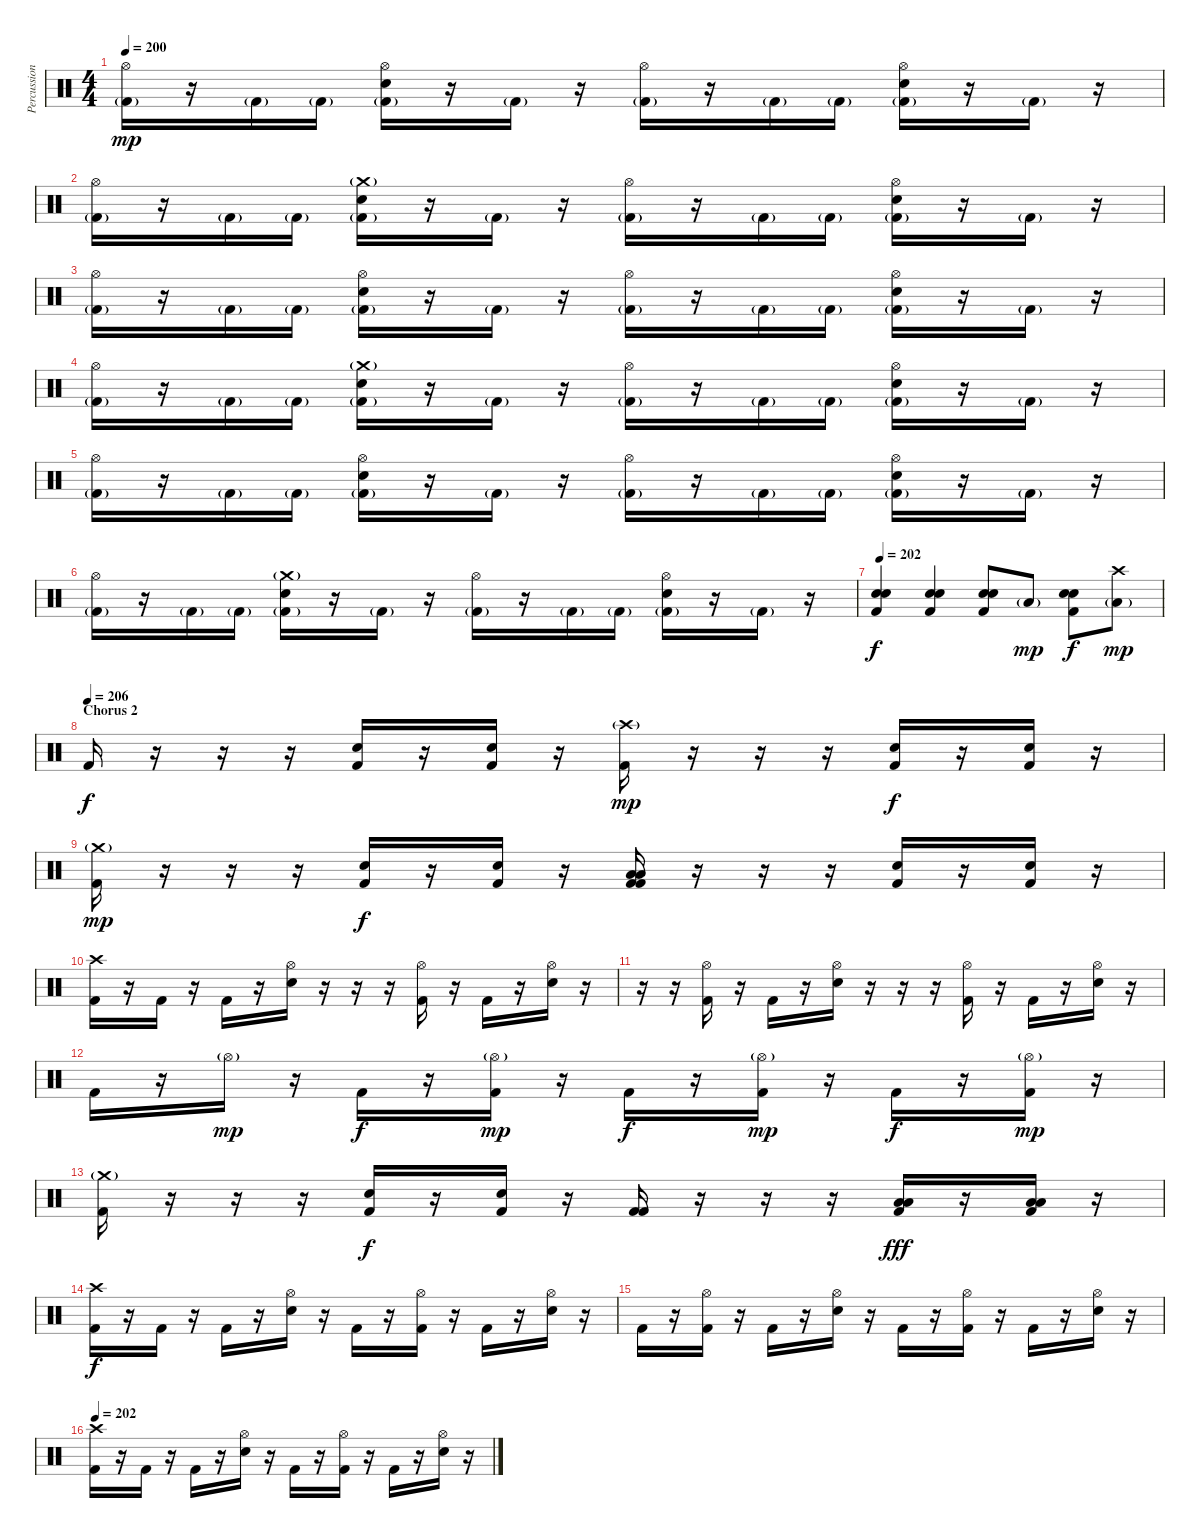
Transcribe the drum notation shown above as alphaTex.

\track ("Percussion" "Percussion") {instrument percussion}
\staff {score}
\articulation defaults
\ts (4 4)
\tempo 200
\clef neutral
\ks c
("Hi-Hat (open)" "Kick (hit) 2"{g}).16{dy mp} r.16 "Kick (hit) 2"{g}.16 "Kick (hit) 2"{g}.16 ("Hi-Hat (open)" "Electric Snare (hit)" "Kick (hit) 2"{g}).16 r.16 "Kick (hit) 2"{g}.16 r.16 ("Hi-Hat (open)" "Kick (hit) 2"{g}).16 r.16 "Kick (hit) 2"{g}.16 "Kick (hit) 2"{g}.16 ("Hi-Hat (open)" "Electric Snare (hit)" "Kick (hit) 2"{g}).16 r.16 "Kick (hit) 2"{g}.16 r.16 |
("Hi-Hat (open)" "Kick (hit) 2"{g}).16 r.16 "Kick (hit) 2"{g}.16 "Kick (hit) 2"{g}.16 ("Crash medium (hit)"{g} "Electric Snare (hit)" "Kick (hit) 2"{g}).16 r.16 "Kick (hit) 2"{g}.16 r.16 ("Hi-Hat (open)" "Kick (hit) 2"{g}).16 r.16 "Kick (hit) 2"{g}.16 "Kick (hit) 2"{g}.16 ("Hi-Hat (open)" "Electric Snare (hit)" "Kick (hit) 2"{g}).16 r.16 "Kick (hit) 2"{g}.16 r.16 |
("Hi-Hat (open)" "Kick (hit) 2"{g}).16 r.16 "Kick (hit) 2"{g}.16 "Kick (hit) 2"{g}.16 ("Hi-Hat (open)" "Electric Snare (hit)" "Kick (hit) 2"{g}).16 r.16 "Kick (hit) 2"{g}.16 r.16 ("Hi-Hat (open)" "Kick (hit) 2"{g}).16 r.16 "Kick (hit) 2"{g}.16 "Kick (hit) 2"{g}.16 ("Hi-Hat (open)" "Electric Snare (hit)" "Kick (hit) 2"{g}).16 r.16 "Kick (hit) 2"{g}.16 r.16 |
("Hi-Hat (open)" "Kick (hit) 2"{g}).16 r.16 "Kick (hit) 2"{g}.16 "Kick (hit) 2"{g}.16 ("Crash medium (hit)"{g} "Electric Snare (hit)" "Kick (hit) 2"{g}).16 r.16 "Kick (hit) 2"{g}.16 r.16 ("Hi-Hat (open)" "Kick (hit) 2"{g}).16 r.16 "Kick (hit) 2"{g}.16 "Kick (hit) 2"{g}.16 ("Hi-Hat (open)" "Electric Snare (hit)" "Kick (hit) 2"{g}).16 r.16 "Kick (hit) 2"{g}.16 r.16 |
("Hi-Hat (open)" "Kick (hit) 2"{g}).16 r.16 "Kick (hit) 2"{g}.16 "Kick (hit) 2"{g}.16 ("Hi-Hat (open)" "Electric Snare (hit)" "Kick (hit) 2"{g}).16 r.16 "Kick (hit) 2"{g}.16 r.16 ("Hi-Hat (open)" "Kick (hit) 2"{g}).16 r.16 "Kick (hit) 2"{g}.16 "Kick (hit) 2"{g}.16 ("Hi-Hat (open)" "Electric Snare (hit)" "Kick (hit) 2"{g}).16 r.16 "Kick (hit) 2"{g}.16 r.16 |
("Hi-Hat (open)" "Kick (hit) 2"{g}).16 r.16 "Kick (hit) 2"{g}.16 "Kick (hit) 2"{g}.16 ("Crash medium (hit)"{g} "Electric Snare (hit)" "Kick (hit) 2"{g}).16 r.16 "Kick (hit) 2"{g}.16 r.16 ("Hi-Hat (open)" "Kick (hit) 2"{g}).16 r.16 "Kick (hit) 2"{g}.16 "Kick (hit) 2"{g}.16 ("Hi-Hat (open)" "Electric Snare (hit)" "Kick (hit) 2"{g}).16 r.16 "Kick (hit) 2"{g}.16 r.16 |
\tempo 202
("Electric Snare (hit)" "Electric Snare (hit)" "Kick (hit) 2").4{dy f} ("Electric Snare (hit)" "Electric Snare (hit)" "Kick (hit) 2").4 ("Electric Snare (hit)" "Electric Snare (hit)" "Kick (hit) 2").8 "Low Tom (hit)"{g}.8{dy mp} ("Electric Snare (hit)" "Electric Snare (hit)" "Kick (hit) 2").8{dy f} ("Crash high (hit)" "Low Tom (hit)"{g}).8{dy mp} |
\section ("" "Chorus 2")
\tempo (206)
"Kick (hit) 2".16{dy f} r.16 r.16 r.16 ("Electric Snare (hit)" "Kick (hit) 2").16 r.16 ("Electric Snare (hit)" "Kick (hit) 2").16 r.16 ("Crash high (hit)"{g} "Kick (hit) 2").16{dy mp} r.16 r.16 r.16 ("Electric Snare (hit)" "Kick (hit) 2").16{dy f} r.16 ("Electric Snare (hit)" "Kick (hit) 2").16 r.16 |
("Crash medium (hit)"{g} "Kick (hit) 2").16{dy mp} r.16 r.16 r.16 ("Electric Snare (hit)" "Kick (hit) 2").16{dy f} r.16 ("Electric Snare (hit)" "Kick (hit) 2").16 r.16 ("Low Tom (hit)" "Low Tom (hit)" "Kick (hit) 2" "Kick (hit) 2").16 r.16 r.16 r.16 ("Electric Snare (hit)" "Kick (hit) 2").16 r.16 ("Electric Snare (hit)" "Kick (hit) 2").16 r.16 |
("Crash high (hit)" "Kick (hit) 2").16 r.16 "Kick (hit) 2".16 r.16 "Kick (hit) 2".16 r.16 ("Hi-Hat (open)" "Electric Snare (hit)").16 r.16 r.16 r.16 ("Hi-Hat (open)" "Kick (hit) 2").16 r.16 "Kick (hit) 2".16 r.16 ("Hi-Hat (open)" "Electric Snare (hit)").16 r.16 |
r.16 r.16 ("Hi-Hat (open)" "Kick (hit) 2").16 r.16 "Kick (hit) 2".16 r.16 ("Hi-Hat (open)" "Electric Snare (hit)").16 r.16 r.16 r.16 ("Hi-Hat (open)" "Kick (hit) 2").16 r.16 "Kick (hit) 2".16 r.16 ("Hi-Hat (open)" "Electric Snare (hit)").16 r.16 |
"Kick (hit) 2".16 r.16 "Hi-Hat (open)"{g}.16{dy mp} r.16 "Kick (hit) 2".16{dy f} r.16 ("Hi-Hat (open)"{g} "Kick (hit) 2").16{dy mp} r.16 "Kick (hit) 2".16{dy f} r.16 ("Hi-Hat (open)"{g} "Kick (hit) 2").16{dy mp} r.16 "Kick (hit) 2".16{dy f} r.16 ("Hi-Hat (open)"{g} "Kick (hit) 2").16{dy mp} r.16 |
("Crash medium (hit)"{g} "Kick (hit) 2").16 r.16 r.16 r.16 ("Electric Snare (hit)" "Kick (hit) 2").16{dy f} r.16 ("Electric Snare (hit)" "Kick (hit) 2").16 r.16 ("Kick (hit) 2" "Kick (hit) 2").16 r.16 r.16 r.16 ("Low Tom (hit)" "Low Tom (hit)" "Kick (hit) 2").16{dy fff} r.16 ("Low Tom (hit)" "Low Tom (hit)" "Kick (hit) 2").16 r.16 |
("Crash high (hit)" "Kick (hit) 2").16{dy f} r.16 "Kick (hit) 2".16 r.16 "Kick (hit) 2".16 r.16 ("Hi-Hat (open)" "Electric Snare (hit)").16 r.16 "Kick (hit) 2".16 r.16 ("Hi-Hat (open)" "Kick (hit) 2").16 r.16 "Kick (hit) 2".16 r.16 ("Hi-Hat (open)" "Electric Snare (hit)").16 r.16 |
"Kick (hit) 2".16 r.16 ("Hi-Hat (open)" "Kick (hit) 2").16 r.16 "Kick (hit) 2".16 r.16 ("Hi-Hat (open)" "Electric Snare (hit)").16 r.16 "Kick (hit) 2".16 r.16 ("Hi-Hat (open)" "Kick (hit) 2").16 r.16 "Kick (hit) 2".16 r.16 ("Hi-Hat (open)" "Electric Snare (hit)").16 r.16 |
\tempo 202
("Crash high (hit)" "Kick (hit) 2").16 r.16 "Kick (hit) 2".16 r.16 "Kick (hit) 2".16 r.16 ("Hi-Hat (open)" "Electric Snare (hit)").16 r.16 "Kick (hit) 2".16 r.16 ("Hi-Hat (open)" "Kick (hit) 2").16 r.16 "Kick (hit) 2".16 r.16 ("Hi-Hat (open)" "Electric Snare (hit)").16 r.16
